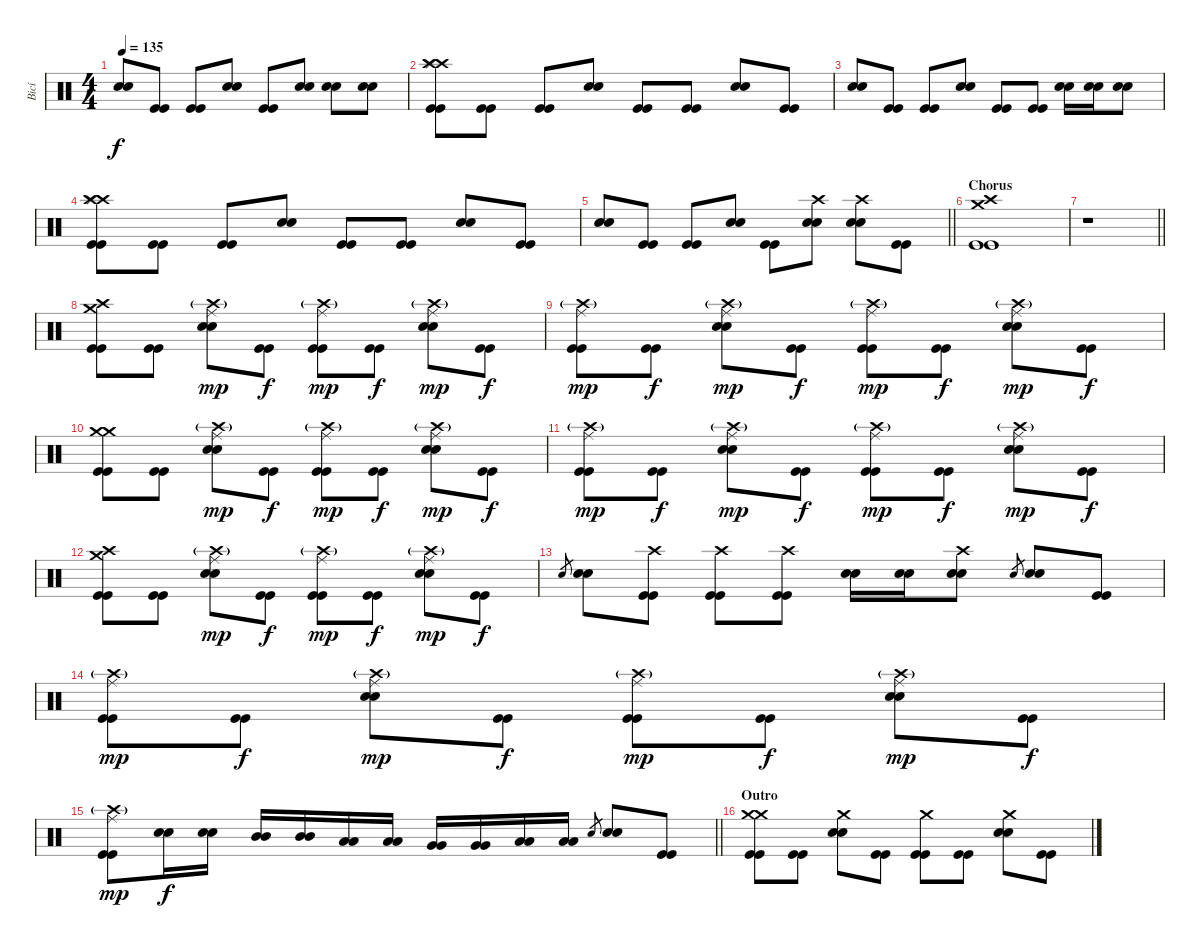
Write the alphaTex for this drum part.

\track ("Bicí" "Bicí") {instrument percussion}
\staff {score}
\articulation defaults
\ts (4 4)
\tempo 135
\clef neutral
\ks c
("Electric Snare (hit)" "Electric Snare (hit)").8{dy f} ("Kick (hit)" "Kick (hit)").8 ("Kick (hit)" "Kick (hit)").8 ("Electric Snare (hit)" "Electric Snare (hit)").8 ("Kick (hit)" "Kick (hit)").8 ("Electric Snare (hit)" "Electric Snare (hit)").8 ("Electric Snare (hit)" "Electric Snare (hit)").8 ("Electric Snare (hit)" "Electric Snare (hit)").8 |
("Crash high (hit)" "Splash (hit)" "Crash high (hit)" "Kick (hit)" "Kick (hit)").8 ("Kick (hit)" "Kick (hit)").8 ("Kick (hit)" "Kick (hit)").8 ("Electric Snare (hit)" "Electric Snare (hit)").8 ("Kick (hit)" "Kick (hit)").8 ("Kick (hit)" "Kick (hit)").8 ("Electric Snare (hit)" "Electric Snare (hit)").8 ("Kick (hit)" "Kick (hit)").8 |
("Electric Snare (hit)" "Electric Snare (hit)").8 ("Kick (hit)" "Kick (hit)").8 ("Kick (hit)" "Kick (hit)").8 ("Electric Snare (hit)" "Electric Snare (hit)").8 ("Kick (hit)" "Kick (hit)").8 ("Kick (hit)" "Kick (hit)").8 ("Electric Snare (hit)" "Electric Snare (hit)").16 ("Electric Snare (hit)" "Electric Snare (hit)").16 ("Electric Snare (hit)" "Electric Snare (hit)").8 |
("Crash high (hit)" "Splash (hit)" "Crash high (hit)" "Kick (hit)" "Kick (hit)").8 ("Kick (hit)" "Kick (hit)").8 ("Kick (hit)" "Kick (hit)").8 ("Electric Snare (hit)" "Electric Snare (hit)").8 ("Kick (hit)" "Kick (hit)").8 ("Kick (hit)" "Kick (hit)").8 ("Electric Snare (hit)" "Electric Snare (hit)").8 ("Kick (hit)" "Kick (hit)").8 |
\barLineRight lightlight
("Electric Snare (hit)" "Electric Snare (hit)").8 ("Kick (hit)" "Kick (hit)").8 ("Kick (hit)" "Kick (hit)").8 ("Electric Snare (hit)" "Electric Snare (hit)").8 ("Kick (hit)" "Kick (hit)").8 ("Crash high (hit)" "Electric Snare (hit)" "Electric Snare (hit)").8 ("Crash high (hit)" "Electric Snare (hit)" "Electric Snare (hit)").8 ("Kick (hit)" "Kick (hit)").8 |
\section ("" "Chorus")
("Crash medium (hit)" "Crash high (hit)" "Kick (hit)" "Kick (hit)").1 |
\barLineRight lightlight
r.1 |
\section ("" "")
("Crash high (hit)" "Crash medium (hit)" "Kick (hit)" "Kick (hit)").8 ("Kick (hit)" "Kick (hit)").8 ("Crash high (hit)"{g} "Ride (middle)" "Electric Snare (hit)" "Electric Snare (hit)").8{dy mp} ("Kick (hit)" "Kick (hit)").8{dy f} ("Crash high (hit)"{g} "Ride (middle)" "Kick (hit)" "Kick (hit)").8{dy mp} ("Kick (hit)" "Kick (hit)").8{dy f} ("Crash high (hit)"{g} "Ride (middle)" "Electric Snare (hit)" "Electric Snare (hit)").8{dy mp} ("Kick (hit)" "Kick (hit)").8{dy f} |
("Crash high (hit)"{g} "Ride (middle)" "Kick (hit)" "Kick (hit)").8{dy mp} ("Kick (hit)" "Kick (hit)").8{dy f} ("Crash high (hit)"{g} "Ride (middle)" "Electric Snare (hit)" "Electric Snare (hit)").8{dy mp} ("Kick (hit)" "Kick (hit)").8{dy f} ("Crash high (hit)"{g} "Ride (middle)" "Kick (hit)" "Kick (hit)").8{dy mp} ("Kick (hit)" "Kick (hit)").8{dy f} ("Crash high (hit)"{g} "Ride (middle)" "Electric Snare (hit)" "Electric Snare (hit)").8{dy mp} ("Kick (hit)" "Kick (hit)").8{dy f} |
("Crash medium (hit)" "Crash medium (hit)" "Kick (hit)" "Kick (hit)").8 ("Kick (hit)" "Kick (hit)").8 ("Crash high (hit)"{g} "Ride (middle)" "Electric Snare (hit)" "Electric Snare (hit)").8{dy mp} ("Kick (hit)" "Kick (hit)").8{dy f} ("Crash high (hit)"{g} "Ride (middle)" "Kick (hit)" "Kick (hit)").8{dy mp} ("Kick (hit)" "Kick (hit)").8{dy f} ("Crash high (hit)"{g} "Ride (middle)" "Electric Snare (hit)" "Electric Snare (hit)").8{dy mp} ("Kick (hit)" "Kick (hit)").8{dy f} |
("Crash high (hit)"{g} "Ride (middle)" "Kick (hit)" "Kick (hit)").8{dy mp} ("Kick (hit)" "Kick (hit)").8{dy f} ("Crash high (hit)"{g} "Ride (middle)" "Electric Snare (hit)" "Electric Snare (hit)").8{dy mp} ("Kick (hit)" "Kick (hit)").8{dy f} ("Crash high (hit)"{g} "Ride (middle)" "Kick (hit)" "Kick (hit)").8{dy mp} ("Kick (hit)" "Kick (hit)").8{dy f} ("Crash high (hit)"{g} "Ride (middle)" "Electric Snare (hit)" "Electric Snare (hit)").8{dy mp} ("Kick (hit)" "Kick (hit)").8{dy f} |
("Crash high (hit)" "Crash medium (hit)" "Kick (hit)" "Kick (hit)").8 ("Kick (hit)" "Kick (hit)").8 ("Crash high (hit)"{g} "Ride (middle)" "Electric Snare (hit)" "Electric Snare (hit)").8{dy mp} ("Kick (hit)" "Kick (hit)").8{dy f} ("Crash high (hit)"{g} "Ride (middle)" "Kick (hit)" "Kick (hit)").8{dy mp} ("Kick (hit)" "Kick (hit)").8{dy f} ("Crash high (hit)"{g} "Ride (middle)" "Electric Snare (hit)" "Electric Snare (hit)").8{dy mp} ("Kick (hit)" "Kick (hit)").8{dy f} |
"Electric Snare (hit)".8{gr} ("Electric Snare (hit)" "Electric Snare (hit)").8 ("Crash high (hit)" "Kick (hit)" "Kick (hit)").8 ("Crash high (hit)" "Kick (hit)" "Kick (hit)").8 ("Crash high (hit)" "Kick (hit)" "Kick (hit)").8 ("Electric Snare (hit)" "Electric Snare (hit)").16 ("Electric Snare (hit)" "Electric Snare (hit)").16 ("Crash high (hit)" "Electric Snare (hit)" "Electric Snare (hit)").8 "Electric Snare (hit)".8{gr} ("Electric Snare (hit)" "Electric Snare (hit)").8 ("Kick (hit)" "Kick (hit)").8 |
("Crash high (hit)"{g} "Ride (middle)" "Kick (hit)" "Kick (hit)").8{dy mp} ("Kick (hit)" "Kick (hit)").8{dy f} ("Crash high (hit)"{g} "Ride (middle)" "Electric Snare (hit)" "Electric Snare (hit)").8{dy mp} ("Kick (hit)" "Kick (hit)").8{dy f} ("Crash high (hit)"{g} "Ride (middle)" "Kick (hit)" "Kick (hit)").8{dy mp} ("Kick (hit)" "Kick (hit)").8{dy f} ("Crash high (hit)"{g} "Ride (middle)" "Electric Snare (hit)" "Electric Snare (hit)").8{dy mp} ("Kick (hit)" "Kick (hit)").8{dy f} |
\barLineRight lightlight
("Crash high (hit)"{g} "Ride (middle)" "Kick (hit)" "Kick (hit)").8{dy mp} ("Electric Snare (hit)" "Electric Snare (hit)").16{dy f} ("Electric Snare (hit)" "Electric Snare (hit)").16 ("Mid Tom (hit)" "Mid Tom (hit)").16 ("Mid Tom (hit)" "Mid Tom (hit)").16 ("Low Tom (hit)" "Low Tom (hit)").16 ("Low Tom (hit)" "Low Tom (hit)").16 ("Very Low Tom (hit)" "Very Low Tom (hit)").16 ("Very Low Tom (hit)" "Very Low Tom (hit)").16 ("Low Floor Tom (hit)" "Low Floor Tom (hit)").16 ("Low Floor Tom (hit)" "Low Floor Tom (hit)").16 "Electric Snare (hit)".8{gr} ("Electric Snare (hit)" "Electric Snare (hit)").8 ("Kick (hit)" "Kick (hit)").8 |
\section ("" "Outro")
("Crash medium (hit)" "Crash medium (hit)" "Kick (hit)" "Kick (hit)").8 ("Kick (hit)" "Kick (hit)").8 ("Crash medium (hit)" "Electric Snare (hit)" "Electric Snare (hit)").8 ("Kick (hit)" "Kick (hit)").8 ("Crash medium (hit)" "Kick (hit)" "Kick (hit)").8 ("Kick (hit)" "Kick (hit)").8 ("Crash medium (hit)" "Electric Snare (hit)" "Electric Snare (hit)").8 ("Kick (hit)" "Kick (hit)").8
